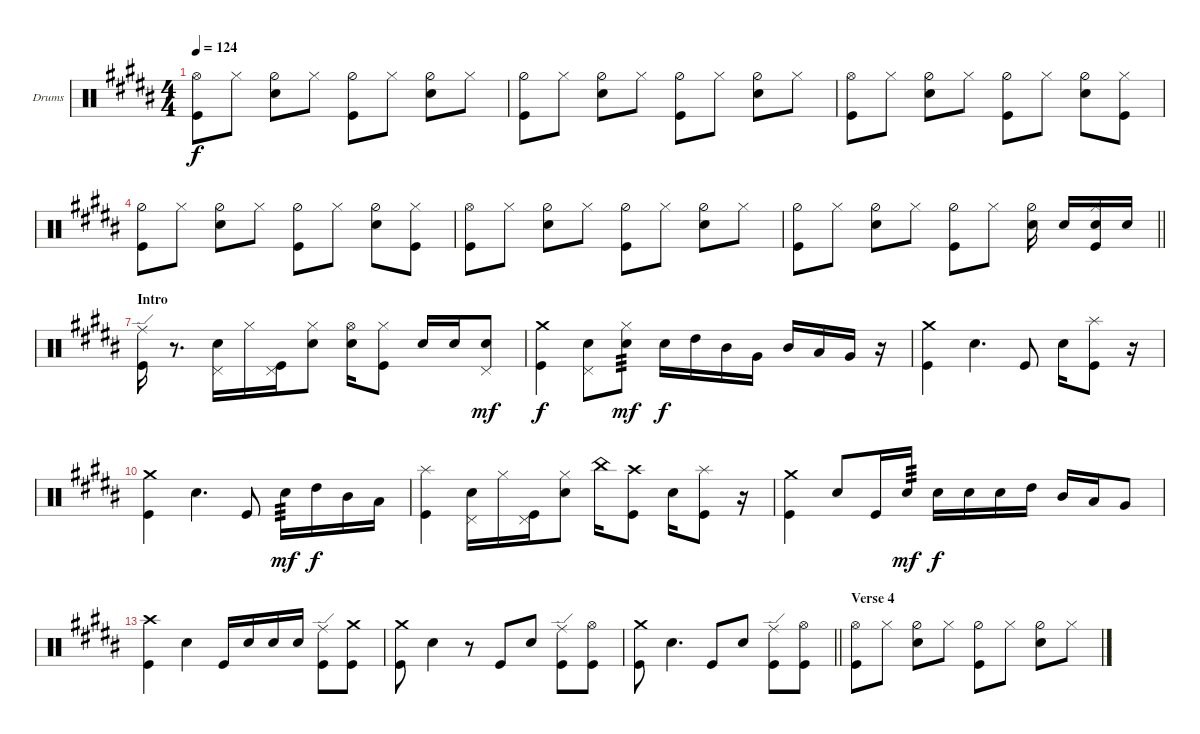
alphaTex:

\bracketExtendMode nobrackets
\firstSystemTrackNameOrientation horizontal
\otherSystemsTrackNameOrientation horizontal
\defaultBarNumberDisplay FirstOfSystem
\track ("Drumkit" "Drums") {instrument percussion}
\staff {score}
\articulation defaults
\ts (4 4)
\tempo 124
\clef neutral
\ks g#minor
("Kick (hit)" "Hi-Hat (open)").8{dy f} "Hi-Hat (closed)".8 ("Hi-Hat (half)" "Snare (hit) 2").8 "Hi-Hat (closed)".8 ("Hi-Hat (half)" "Kick (hit)").8 "Hi-Hat (closed)".8 ("Snare (hit) 2" "Hi-Hat (half)").8 "Hi-Hat (closed)".8 |
("Kick (hit)" "Hi-Hat (half)").8 "Hi-Hat (closed)".8 ("Hi-Hat (half)" "Snare (hit) 2").8 "Hi-Hat (closed)".8 ("Hi-Hat (half)" "Kick (hit)").8 "Hi-Hat (closed)".8 ("Hi-Hat (half)" "Snare (hit) 2").8 "Hi-Hat (closed)".8 |
\ks b
("Kick (hit)" "Hi-Hat (open)").8 "Hi-Hat (closed)".8 ("Hi-Hat (half)" "Snare (hit) 2").8 "Hi-Hat (closed)".8 ("Hi-Hat (half)" "Kick (hit)").8 "Hi-Hat (closed)".8 ("Hi-Hat (half)" "Snare (hit) 2").8 ("Hi-Hat (closed)" "Kick (hit)").8 |
\ks g#minor
("Kick (hit)" "Hi-Hat (half)").8 "Hi-Hat (closed)".8 ("Hi-Hat (half)" "Snare (hit) 2").8 "Hi-Hat (closed)".8 ("Hi-Hat (half)" "Kick (hit)").8 "Hi-Hat (closed)".8 ("Hi-Hat (half)" "Snare (hit) 2").8 ("Hi-Hat (closed)" "Kick (hit)").8 |
("Kick (hit)" "Hi-Hat (open)").8 "Hi-Hat (closed)".8 ("Hi-Hat (half)" "Snare (hit) 2").8 "Hi-Hat (closed)".8 ("Hi-Hat (half)" "Kick (hit)").8 "Hi-Hat (closed)".8 ("Hi-Hat (half)" "Snare (hit) 2").8 "Hi-Hat (closed)".8 |
\barLineRight lightlight
("Kick (hit)" "Hi-Hat (half)").8 "Hi-Hat (closed)".8 ("Hi-Hat (half)" "Snare (hit) 2").8 "Hi-Hat (closed)".8 ("Hi-Hat (half)" "Kick (hit)").8 "Hi-Hat (closed)".8 ("Snare (hit) 2" "Hi-Hat (half)").16{beam split} "Snare (hit) 2".16 ("Hi-Hat (closed)" "Snare (hit) 2" "Kick (hit)").16 "Snare (hit) 2".16 |
\section ("" "Intro")
\ks b
("Kick (hit)" "Ride (edge)").16 r.8{d} ("Snare (hit) 2" "Pedal Hi-Hat (hit)").16 "Hi-Hat (closed)".16 ("Kick (hit)" "Pedal Hi-Hat (hit)").16 ("Snare (hit) 2" "Hi-Hat (closed)").8 ("Snare (hit) 2" "Hi-Hat (open)").16 ("Kick (hit)" "Hi-Hat (closed)").8 "Snare (hit) 2".16 "Snare (hit) 2".16 ("Snare (hit) 2" "Pedal Hi-Hat (hit)").8{dy mf} |
\ks g#minor
("Crash medium (hit)" "Kick (hit)").4{dy f} ("Snare (hit) 2" "Pedal Hi-Hat (hit)").8 ("Snare (hit) 2" "Hi-Hat (closed)").8{tp 3 dy mf} "Snare (hit) 2".16{dy f} "High Tom (hit)".16 "Mid Tom (hit)".16 "Very Low Tom (hit)".16 "Mid Tom (hit)".16 "Low Tom (hit)".16 "Very Low Tom (hit)".16 r.16 |
("Crash medium (hit)" "Kick (hit)").4 "Snare (hit) 2".4{d} "Kick (hit)".8 "Snare (hit) 2".16 ("Kick (hit)" "Splash (hit)").8 r.16 |
\ks b
("Kick (hit)" "Crash medium (hit)").4 "Snare (hit) 2".4{d} "Kick (hit)".8 "Snare (hit) 2".16{tp 3 dy mf} "High Tom (hit)".16{dy f} "Mid Tom (hit)".16 "Low Tom (hit)".16 |
\ks g#minor
("Kick (hit)" "Splash (hit)").4 ("Snare (hit) 2" "Pedal Hi-Hat (hit)").16 "Hi-Hat (closed)".16 ("Kick (hit)" "Pedal Hi-Hat (hit)").16 ("Snare (hit) 2" "Hi-Hat (closed)").8 "China (hit)".16 ("Kick (hit)" "Crash high (hit)").8 "Snare (hit) 2".16 ("Kick (hit)" "Splash (hit)").8 r.16 |
("Kick (hit)" "Crash medium (hit)").4 "Snare (hit) 2".8 "Kick (hit)".16 "Snare (hit) 2".16{tp 3 dy mf} "Snare (hit) 2".16{dy f} "Snare (hit) 2".16 "Snare (hit) 2".16 "High Tom (hit)".16 "Mid Tom (hit)".16 "Low Tom (hit)".16 "Very Low Tom (hit)".8 |
\ks b
("Kick (hit)" "Crash high (hit)").4 "Snare (hit) 2".4 "Kick (hit)".16 "Snare (hit) 2".16 "Snare (hit) 2".16 "Snare (hit) 2".16 ("Kick (hit)" "Ride (edge)").8 ("Kick (hit)" "Crash medium (hit)").8 |
\ks g#minor
("Kick (hit)" "Crash medium (hit)").8 "Snare (hit) 2".4 r.8 "Kick (hit)".8 "Snare (hit) 2".8 ("Kick (hit)" "Ride (edge)").8 ("Hi-Hat (open)" "Kick (hit)").8 |
\barLineRight lightlight
("Kick (hit)" "Crash medium (hit)").8 "Snare (hit) 2".4{d} "Kick (hit)".8 "Snare (hit) 2".8 ("Kick (hit)" "Ride (edge)").8 ("Kick (hit)" "Hi-Hat (open)").8 |
\section ("" "Verse 4")
\ks b
("Kick (hit)" "Hi-Hat (open)").8 "Hi-Hat (closed)".8 ("Hi-Hat (half)" "Snare (hit) 2").8 "Hi-Hat (closed)".8 ("Hi-Hat (half)" "Kick (hit)").8 "Hi-Hat (closed)".8 ("Hi-Hat (half)" "Snare (hit) 2").8 "Hi-Hat (closed)".8
